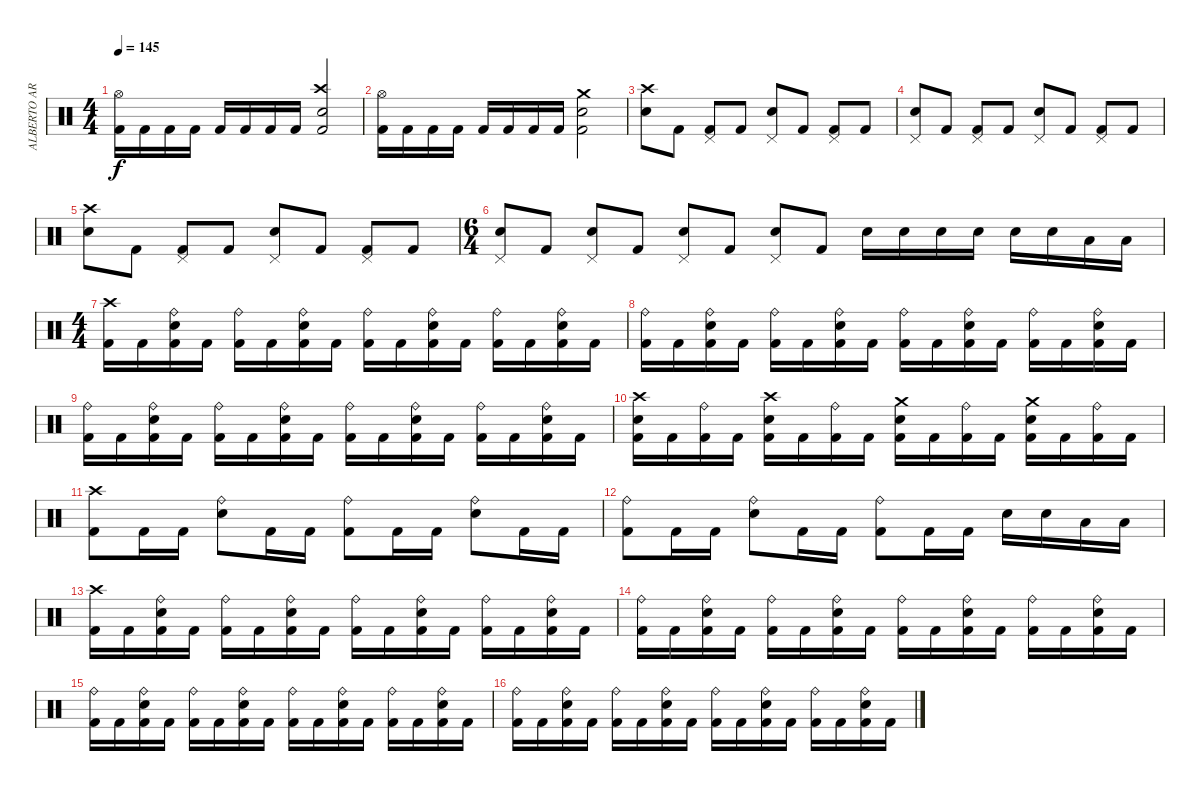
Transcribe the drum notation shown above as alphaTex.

\track ("ALBERTO ARDINES" "ALBERTO AR") {instrument percussion}
\staff {score}
\articulation defaults
\ts (4 4)
\tempo 145
\clef neutral
\ks c
("Hi-Hat (open)" "Kick (hit) 2").16{dy f} "Kick (hit) 2".16 "Kick (hit) 2".16 "Kick (hit) 2".16 "Kick (hit) 2".16 "Kick (hit) 2".16 "Kick (hit) 2".16 "Kick (hit) 2".16 ("Crash high (hit)" "Electric Snare (hit)" "Kick (hit) 2").2 |
("Hi-Hat (open)" "Kick (hit) 2").16 "Kick (hit) 2".16 "Kick (hit) 2".16 "Kick (hit) 2".16 "Kick (hit) 2".16 "Kick (hit) 2".16 "Kick (hit) 2".16 "Kick (hit) 2".16 ("Crash medium (hit)" "Electric Snare (hit)" "Kick (hit) 2").2 |
("Crash high (hit)" "Electric Snare (hit)").8 "Kick (hit) 2".8 ("Pedal Hi-Hat (hit)" "Kick (hit) 2").8 "Kick (hit) 2".8 ("Pedal Hi-Hat (hit)" "Electric Snare (hit)").8 "Kick (hit) 2".8 ("Pedal Hi-Hat (hit)" "Kick (hit) 2").8 "Kick (hit) 2".8 |
("Pedal Hi-Hat (hit)" "Electric Snare (hit)").8 "Kick (hit) 2".8 ("Pedal Hi-Hat (hit)" "Kick (hit) 2").8 "Kick (hit) 2".8 ("Pedal Hi-Hat (hit)" "Electric Snare (hit)").8 "Kick (hit) 2".8 ("Pedal Hi-Hat (hit)" "Kick (hit) 2").8 "Kick (hit) 2".8 |
("Crash high (hit)" "Electric Snare (hit)").8 "Kick (hit) 2".8 ("Pedal Hi-Hat (hit)" "Kick (hit) 2").8 "Kick (hit) 2".8 ("Pedal Hi-Hat (hit)" "Electric Snare (hit)").8 "Kick (hit) 2".8 ("Pedal Hi-Hat (hit)" "Kick (hit) 2").8 "Kick (hit) 2".8 |
\ts (6 4)
("Pedal Hi-Hat (hit)" "Electric Snare (hit)").8 "Kick (hit) 2".8 ("Pedal Hi-Hat (hit)" "Electric Snare (hit)").8 "Kick (hit) 2".8 ("Pedal Hi-Hat (hit)" "Electric Snare (hit)").8 "Kick (hit) 2".8 ("Pedal Hi-Hat (hit)" "Electric Snare (hit)").8 "Kick (hit) 2".8 "Electric Snare (hit)".16 "Electric Snare (hit)".16 "Electric Snare (hit)".16 "Electric Snare (hit)".16 "Electric Snare (hit)".16 "Electric Snare (hit)".16 "Low Tom (hit)".16 "Low Tom (hit)".16 |
\ts (4 4)
("Crash high (hit)" "Kick (hit) 2").16 "Kick (hit) 2".16 ("Ride (bell)" "Electric Snare (hit)" "Kick (hit) 2").16 "Kick (hit) 2".16 ("Ride (bell)" "Kick (hit) 2").16 "Kick (hit) 2".16 ("Ride (bell)" "Electric Snare (hit)" "Kick (hit) 2").16 "Kick (hit) 2".16 ("Ride (bell)" "Kick (hit) 2").16 "Kick (hit) 2".16 ("Ride (bell)" "Electric Snare (hit)" "Kick (hit) 2").16 "Kick (hit) 2".16 ("Ride (bell)" "Kick (hit) 2").16 "Kick (hit) 2".16 ("Ride (bell)" "Electric Snare (hit)" "Kick (hit) 2").16 "Kick (hit) 2".16 |
("Ride (bell)" "Kick (hit) 2").16 "Kick (hit) 2".16 ("Ride (bell)" "Electric Snare (hit)" "Kick (hit) 2").16 "Kick (hit) 2".16 ("Ride (bell)" "Kick (hit) 2").16 "Kick (hit) 2".16 ("Ride (bell)" "Electric Snare (hit)" "Kick (hit) 2").16 "Kick (hit) 2".16 ("Ride (bell)" "Kick (hit) 2").16 "Kick (hit) 2".16 ("Ride (bell)" "Electric Snare (hit)" "Kick (hit) 2").16 "Kick (hit) 2".16 ("Ride (bell)" "Kick (hit) 2").16 "Kick (hit) 2".16 ("Ride (bell)" "Electric Snare (hit)" "Kick (hit) 2").16 "Kick (hit) 2".16 |
("Ride (bell)" "Kick (hit) 2").16 "Kick (hit) 2".16 ("Ride (bell)" "Electric Snare (hit)" "Kick (hit) 2").16 "Kick (hit) 2".16 ("Ride (bell)" "Kick (hit) 2").16 "Kick (hit) 2".16 ("Ride (bell)" "Electric Snare (hit)" "Kick (hit) 2").16 "Kick (hit) 2".16 ("Ride (bell)" "Kick (hit) 2").16 "Kick (hit) 2".16 ("Ride (bell)" "Electric Snare (hit)" "Kick (hit) 2").16 "Kick (hit) 2".16 ("Ride (bell)" "Kick (hit) 2").16 "Kick (hit) 2".16 ("Ride (bell)" "Electric Snare (hit)" "Kick (hit) 2").16 "Kick (hit) 2".16 |
("Crash high (hit)" "Electric Snare (hit)" "Kick (hit) 2").16 "Kick (hit) 2".16 ("Ride (bell)" "Kick (hit) 2").16 "Kick (hit) 2".16 ("Crash high (hit)" "Electric Snare (hit)" "Kick (hit) 2").16 "Kick (hit) 2".16 ("Ride (bell)" "Kick (hit) 2").16 "Kick (hit) 2".16 ("Crash medium (hit)" "Electric Snare (hit)" "Kick (hit) 2").16 "Kick (hit) 2".16 ("Ride (bell)" "Kick (hit) 2").16 "Kick (hit) 2".16 ("Crash medium (hit)" "Electric Snare (hit)" "Kick (hit) 2").16 "Kick (hit) 2".16 ("Ride (bell)" "Kick (hit) 2").16 "Kick (hit) 2".16 |
("Crash high (hit)" "Kick (hit) 2").8 "Kick (hit) 2".16 "Kick (hit) 2".16 ("Ride (bell)" "Electric Snare (hit)").8 "Kick (hit) 2".16 "Kick (hit) 2".16 ("Ride (bell)" "Kick (hit) 2").8 "Kick (hit) 2".16 "Kick (hit) 2".16 ("Ride (bell)" "Electric Snare (hit)").8 "Kick (hit) 2".16 "Kick (hit) 2".16 |
("Ride (bell)" "Kick (hit) 2").8 "Kick (hit) 2".16 "Kick (hit) 2".16 ("Ride (bell)" "Electric Snare (hit)").8 "Kick (hit) 2".16 "Kick (hit) 2".16 ("Ride (bell)" "Kick (hit) 2").8 "Kick (hit) 2".16 "Kick (hit) 2".16 "Electric Snare (hit)".16 "Electric Snare (hit)".16 "Low Tom (hit)".16 "Low Tom (hit)".16 |
("Crash high (hit)" "Kick (hit) 2").16 "Kick (hit) 2".16 ("Ride (bell)" "Electric Snare (hit)" "Kick (hit) 2").16 "Kick (hit) 2".16 ("Ride (bell)" "Kick (hit) 2").16 "Kick (hit) 2".16 ("Ride (bell)" "Electric Snare (hit)" "Kick (hit) 2").16 "Kick (hit) 2".16 ("Ride (bell)" "Kick (hit) 2").16 "Kick (hit) 2".16 ("Ride (bell)" "Electric Snare (hit)" "Kick (hit) 2").16 "Kick (hit) 2".16 ("Ride (bell)" "Kick (hit) 2").16 "Kick (hit) 2".16 ("Ride (bell)" "Electric Snare (hit)" "Kick (hit) 2").16 "Kick (hit) 2".16 |
("Ride (bell)" "Kick (hit) 2").16 "Kick (hit) 2".16 ("Ride (bell)" "Electric Snare (hit)" "Kick (hit) 2").16 "Kick (hit) 2".16 ("Ride (bell)" "Kick (hit) 2").16 "Kick (hit) 2".16 ("Ride (bell)" "Electric Snare (hit)" "Kick (hit) 2").16 "Kick (hit) 2".16 ("Ride (bell)" "Kick (hit) 2").16 "Kick (hit) 2".16 ("Ride (bell)" "Electric Snare (hit)" "Kick (hit) 2").16 "Kick (hit) 2".16 ("Ride (bell)" "Kick (hit) 2").16 "Kick (hit) 2".16 ("Ride (bell)" "Electric Snare (hit)" "Kick (hit) 2").16 "Kick (hit) 2".16 |
("Ride (bell)" "Kick (hit) 2").16 "Kick (hit) 2".16 ("Ride (bell)" "Electric Snare (hit)" "Kick (hit) 2").16 "Kick (hit) 2".16 ("Ride (bell)" "Kick (hit) 2").16 "Kick (hit) 2".16 ("Ride (bell)" "Electric Snare (hit)" "Kick (hit) 2").16 "Kick (hit) 2".16 ("Ride (bell)" "Kick (hit) 2").16 "Kick (hit) 2".16 ("Ride (bell)" "Electric Snare (hit)" "Kick (hit) 2").16 "Kick (hit) 2".16 ("Ride (bell)" "Kick (hit) 2").16 "Kick (hit) 2".16 ("Ride (bell)" "Electric Snare (hit)" "Kick (hit) 2").16 "Kick (hit) 2".16 |
("Ride (bell)" "Kick (hit) 2").16 "Kick (hit) 2".16 ("Ride (bell)" "Electric Snare (hit)" "Kick (hit) 2").16 "Kick (hit) 2".16 ("Ride (bell)" "Kick (hit) 2").16 "Kick (hit) 2".16 ("Ride (bell)" "Electric Snare (hit)" "Kick (hit) 2").16 "Kick (hit) 2".16 ("Ride (bell)" "Kick (hit) 2").16 "Kick (hit) 2".16 ("Ride (bell)" "Electric Snare (hit)" "Kick (hit) 2").16 "Kick (hit) 2".16 ("Ride (bell)" "Kick (hit) 2").16 "Kick (hit) 2".16 ("Ride (bell)" "Electric Snare (hit)" "Kick (hit) 2").16 "Kick (hit) 2".16
